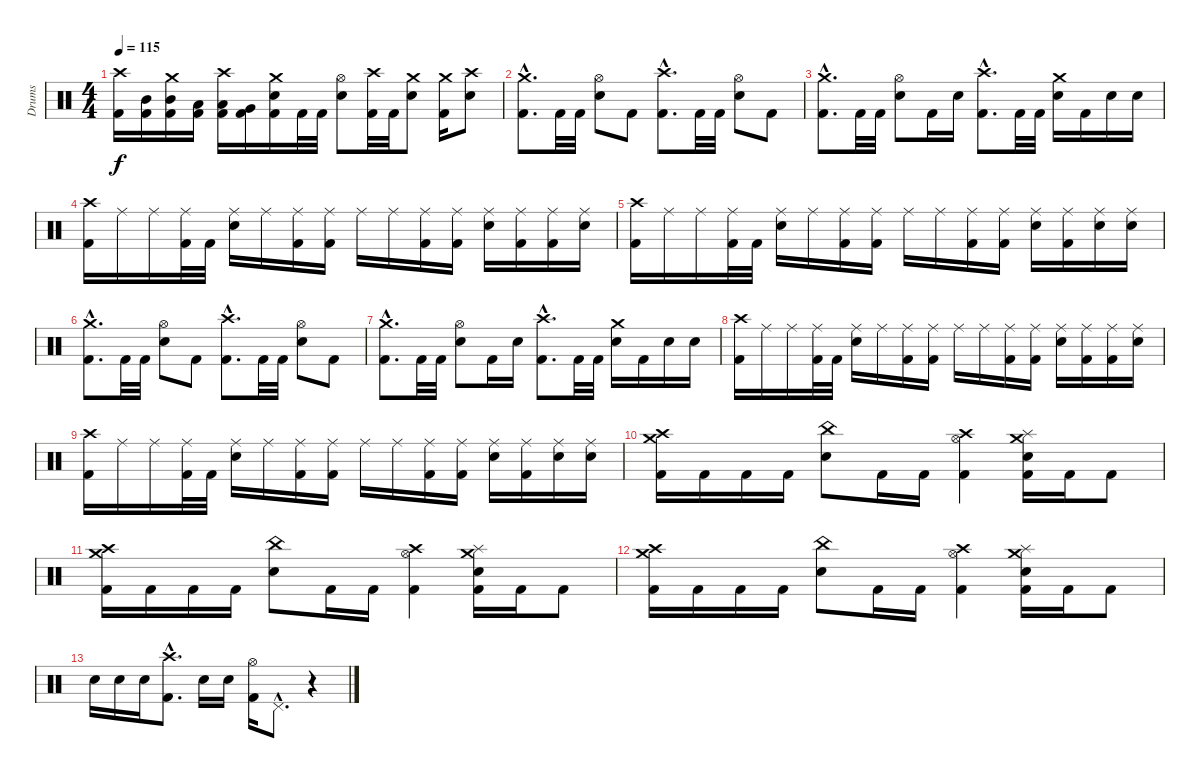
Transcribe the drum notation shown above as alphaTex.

\track ("Drums" "Drums") {instrument percussion}
\staff {score}
\articulation defaults
\ts (4 4)
\tempo 115
\clef neutral
\ks c
("Crash high (hit)" "Kick (hit) 2").16{dy f} ("Mid Tom (hit)" "Kick (hit) 2").16 ("Crash medium (hit)" "Mid Tom (hit)" "Kick (hit) 2").16 ("Low Tom (hit)" "Kick (hit) 2").16 ("Crash high (hit)" "Low Tom (hit)" "Kick (hit) 2").16 ("Very Low Tom (hit)" "Kick (hit) 2").16 ("Crash medium (hit)" "Electric Snare (hit)" "Kick (hit) 2").16 "Kick (hit) 2".32 "Kick (hit) 2".32 ("Hi-Hat (open)" "Electric Snare (hit)").8 ("Crash high (hit)" "Kick (hit) 2").32 "Kick (hit) 2".32 ("Crash medium (hit)" "Electric Snare (hit)").8 ("Crash medium (hit)" "Kick (hit) 2").16 ("Crash high (hit)" "Electric Snare (hit)").8 |
("Crash medium (hit)"{hac} "Kick (hit) 2"{hac}).8{d} "Kick (hit) 2".32 "Kick (hit) 2".32 ("Hi-Hat (open)" "Electric Snare (hit)").8 "Kick (hit) 2".8 ("Crash high (hit)"{hac} "Kick (hit) 2"{hac}).8{d} "Kick (hit) 2".32 "Kick (hit) 2".32 ("Hi-Hat (open)" "Electric Snare (hit)").8 "Kick (hit) 2".8 |
("Crash medium (hit)"{hac} "Kick (hit) 2"{hac}).8{d} "Kick (hit) 2".32 "Kick (hit) 2".32 ("Hi-Hat (open)" "Electric Snare (hit)").8 "Kick (hit) 2".16 "Electric Snare (hit)".16 ("Crash high (hit)"{hac} "Kick (hit) 2"{hac}).8{d} "Kick (hit) 2".32 "Kick (hit) 2".32 ("Crash medium (hit)" "Electric Snare (hit)").16 "Kick (hit) 2".16 "Electric Snare (hit)".16 "Electric Snare (hit)".16 |
("Crash high (hit)" "Kick (hit) 2").16 "Ride (middle)".16 "Ride (middle)".16 ("Ride (middle)" "Kick (hit) 2").32 "Kick (hit) 2".32 ("Ride (middle)" "Electric Snare (hit)").16 "Ride (middle)".16 ("Ride (middle)" "Kick (hit) 2").16 ("Ride (middle)" "Kick (hit) 2").16 "Ride (middle)".16 "Ride (middle)".16 ("Ride (middle)" "Kick (hit) 2").16 ("Ride (middle)" "Kick (hit) 2").16 ("Ride (middle)" "Electric Snare (hit)").16 ("Ride (middle)" "Kick (hit) 2").16 ("Ride (middle)" "Kick (hit) 2").16 ("Ride (middle)" "Electric Snare (hit)").16 |
("Crash high (hit)" "Kick (hit) 2").16 "Ride (middle)".16 "Ride (middle)".16 ("Ride (middle)" "Kick (hit) 2").32 "Kick (hit) 2".32 ("Ride (middle)" "Electric Snare (hit)").16 "Ride (middle)".16 ("Ride (middle)" "Kick (hit) 2").16 ("Ride (middle)" "Kick (hit) 2").16 "Ride (middle)".16 "Ride (middle)".16 ("Ride (middle)" "Kick (hit) 2").16 ("Ride (middle)" "Kick (hit) 2").16 ("Ride (middle)" "Electric Snare (hit)").16 ("Ride (middle)" "Kick (hit) 2").16 ("Ride (middle)" "Electric Snare (hit)").16 ("Ride (middle)" "Electric Snare (hit)").16 |
("Crash medium (hit)"{hac} "Kick (hit) 2"{hac}).8{d} "Kick (hit) 2".32 "Kick (hit) 2".32 ("Hi-Hat (open)" "Electric Snare (hit)").8 "Kick (hit) 2".8 ("Crash high (hit)"{hac} "Kick (hit) 2"{hac}).8{d} "Kick (hit) 2".32 "Kick (hit) 2".32 ("Hi-Hat (open)" "Electric Snare (hit)").8 "Kick (hit) 2".8 |
("Crash medium (hit)"{hac} "Kick (hit) 2"{hac}).8{d} "Kick (hit) 2".32 "Kick (hit) 2".32 ("Hi-Hat (open)" "Electric Snare (hit)").8 "Kick (hit) 2".16 "Electric Snare (hit)".16 ("Crash high (hit)"{hac} "Kick (hit) 2"{hac}).8{d} "Kick (hit) 2".32 "Kick (hit) 2".32 ("Crash medium (hit)" "Electric Snare (hit)").16 "Kick (hit) 2".16 "Electric Snare (hit)".16 "Electric Snare (hit)".16 |
("Crash high (hit)" "Kick (hit) 2").16 "Ride (middle)".16 "Ride (middle)".16 ("Ride (middle)" "Kick (hit) 2").32 "Kick (hit) 2".32 ("Ride (middle)" "Electric Snare (hit)").16 "Ride (middle)".16 ("Ride (middle)" "Kick (hit) 2").16 ("Ride (middle)" "Kick (hit) 2").16 "Ride (middle)".16 "Ride (middle)".16 ("Ride (middle)" "Kick (hit) 2").16 ("Ride (middle)" "Kick (hit) 2").16 ("Ride (middle)" "Electric Snare (hit)").16 ("Ride (middle)" "Kick (hit) 2").16 ("Ride (middle)" "Kick (hit) 2").16 ("Ride (middle)" "Electric Snare (hit)").16 |
("Crash high (hit)" "Kick (hit) 2").16 "Ride (middle)".16 "Ride (middle)".16 ("Ride (middle)" "Kick (hit) 2").32 "Kick (hit) 2".32 ("Ride (middle)" "Electric Snare (hit)").16 "Ride (middle)".16 ("Ride (middle)" "Kick (hit) 2").16 ("Ride (middle)" "Kick (hit) 2").16 "Ride (middle)".16 "Ride (middle)".16 ("Ride (middle)" "Kick (hit) 2").16 ("Ride (middle)" "Kick (hit) 2").16 ("Ride (middle)" "Electric Snare (hit)").16 ("Ride (middle)" "Kick (hit) 2").16 ("Ride (middle)" "Electric Snare (hit)").16 ("Ride (middle)" "Electric Snare (hit)").16 |
("Crash medium (hit)" "Crash high (hit)" "Kick (hit) 2").16 "Kick (hit) 2".16 "Kick (hit) 2".16 "Kick (hit) 2".16 ("China (hit)" "Electric Snare (hit)").8 "Kick (hit) 2".16 "Kick (hit) 2".16 ("Crash high (hit)" "Hi-Hat (open)" "Kick (hit) 2").4 ("Crash medium (hit)" "Splash (hit)" "Electric Snare (hit)" "Kick (hit) 2").16 "Kick (hit) 2".16 "Kick (hit) 2".8 |
("Crash medium (hit)" "Crash high (hit)" "Kick (hit) 2").16 "Kick (hit) 2".16 "Kick (hit) 2".16 "Kick (hit) 2".16 ("China (hit)" "Electric Snare (hit)").8 "Kick (hit) 2".16 "Kick (hit) 2".16 ("Crash high (hit)" "Hi-Hat (open)" "Kick (hit) 2").4 ("Crash medium (hit)" "Splash (hit)" "Electric Snare (hit)" "Kick (hit) 2").16 "Kick (hit) 2".16 "Kick (hit) 2".8 |
("Crash medium (hit)" "Crash high (hit)" "Kick (hit) 2").16 "Kick (hit) 2".16 "Kick (hit) 2".16 "Kick (hit) 2".16 ("China (hit)" "Electric Snare (hit)").8 "Kick (hit) 2".16 "Kick (hit) 2".16 ("Crash high (hit)" "Hi-Hat (open)" "Kick (hit) 2").4 ("Crash medium (hit)" "Splash (hit)" "Electric Snare (hit)" "Kick (hit) 2").16 "Kick (hit) 2".16 "Kick (hit) 2".8 |
"Electric Snare (hit)".16 "Electric Snare (hit)".16 "Electric Snare (hit)".16 ("Crash high (hit)"{hac} "Kick (hit) 2"{hac}).8{d} "Electric Snare (hit)".16 "Electric Snare (hit)".16 ("Hi-Hat (open)" "Kick (hit) 2").16 "Pedal Hi-Hat (hit)"{hac}.8{d} r.4
